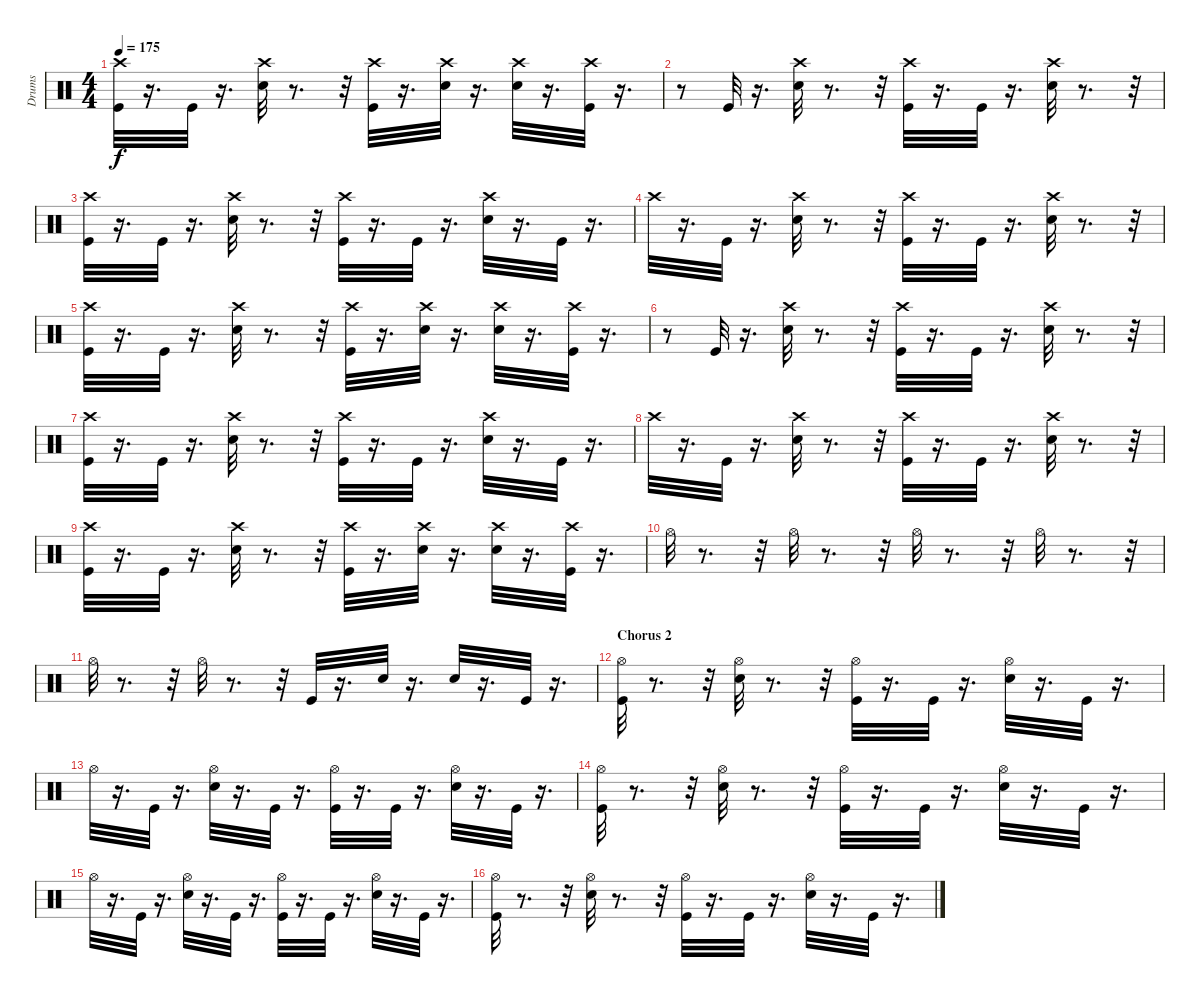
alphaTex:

\track ("Drums" "Drums") {instrument percussion}
\staff {score}
\articulation defaults
\ts (4 4)
\tempo 175
\clef neutral
\ks c
("Crash high (hit)" "Kick (hit)").32{dy f} r.16{d} "Kick (hit)".32 r.16{d} ("Crash high (hit)" "Electric Snare (hit)").32 r.8{d} r.32 ("Crash high (hit)" "Kick (hit)").32 r.16{d} ("Electric Snare (hit)" "Crash high (hit)").32 r.16{d} ("Electric Snare (hit)" "Crash high (hit)").32 r.16{d} ("Crash high (hit)" "Kick (hit)").32 r.16{d} |
r.8 "Kick (hit)".32 r.16{d} ("Crash high (hit)" "Electric Snare (hit)").32 r.8{d} r.32 ("Crash high (hit)" "Kick (hit)").32 r.16{d} "Kick (hit)".32 r.16{d} ("Electric Snare (hit)" "Crash high (hit)").32 r.8{d} r.32 |
("Crash high (hit)" "Kick (hit)").32 r.16{d} "Kick (hit)".32 r.16{d} ("Crash high (hit)" "Electric Snare (hit)").32 r.8{d} r.32 ("Crash high (hit)" "Kick (hit)").32 r.16{d} "Kick (hit)".32 r.16{d} ("Electric Snare (hit)" "Crash high (hit)").32 r.16{d} "Kick (hit)".32 r.16{d} |
"Crash high (hit)".32 r.16{d} "Kick (hit)".32 r.16{d} ("Crash high (hit)" "Electric Snare (hit)").32 r.8{d} r.32 ("Crash high (hit)" "Kick (hit)").32 r.16{d} "Kick (hit)".32 r.16{d} ("Electric Snare (hit)" "Crash high (hit)").32 r.8{d} r.32 |
("Crash high (hit)" "Kick (hit)").32 r.16{d} "Kick (hit)".32 r.16{d} ("Crash high (hit)" "Electric Snare (hit)").32 r.8{d} r.32 ("Crash high (hit)" "Kick (hit)").32 r.16{d} ("Electric Snare (hit)" "Crash high (hit)").32 r.16{d} ("Electric Snare (hit)" "Crash high (hit)").32 r.16{d} ("Crash high (hit)" "Kick (hit)").32 r.16{d} |
r.8 "Kick (hit)".32 r.16{d} ("Crash high (hit)" "Electric Snare (hit)").32 r.8{d} r.32 ("Crash high (hit)" "Kick (hit)").32 r.16{d} "Kick (hit)".32 r.16{d} ("Electric Snare (hit)" "Crash high (hit)").32 r.8{d} r.32 |
("Crash high (hit)" "Kick (hit)").32 r.16{d} "Kick (hit)".32 r.16{d} ("Crash high (hit)" "Electric Snare (hit)").32 r.8{d} r.32 ("Crash high (hit)" "Kick (hit)").32 r.16{d} "Kick (hit)".32 r.16{d} ("Electric Snare (hit)" "Crash high (hit)").32 r.16{d} "Kick (hit)".32 r.16{d} |
"Crash high (hit)".32 r.16{d} "Kick (hit)".32 r.16{d} ("Crash high (hit)" "Electric Snare (hit)").32 r.8{d} r.32 ("Crash high (hit)" "Kick (hit)").32 r.16{d} "Kick (hit)".32 r.16{d} ("Electric Snare (hit)" "Crash high (hit)").32 r.8{d} r.32 |
("Crash high (hit)" "Kick (hit)").32 r.16{d} "Kick (hit)".32 r.16{d} ("Crash high (hit)" "Electric Snare (hit)").32 r.8{d} r.32 ("Crash high (hit)" "Kick (hit)").32 r.16{d} ("Electric Snare (hit)" "Crash high (hit)").32 r.16{d} ("Electric Snare (hit)" "Crash high (hit)").32 r.16{d} ("Crash high (hit)" "Kick (hit)").32 r.16{d} |
"Hi-Hat (open)".32 r.8{d} r.32 "Hi-Hat (open)".32 r.8{d} r.32 "Hi-Hat (open)".32 r.8{d} r.32 "Hi-Hat (open)".32 r.8{d} r.32 |
"Hi-Hat (open)".32 r.8{d} r.32 "Hi-Hat (open)".32 r.8{d} r.32 "Kick (hit)".32 r.16{d} "Electric Snare (hit)".32 r.16{d} "Electric Snare (hit)".32 r.16{d} "Kick (hit)".32 r.16{d} |
\section ("" "Chorus 2")
("Hi-Hat (open)" "Kick (hit)").32 r.8{d} r.32 ("Hi-Hat (open)" "Electric Snare (hit)").32 r.8{d} r.32 ("Hi-Hat (open)" "Kick (hit)").32 r.16{d} "Kick (hit)".32 r.16{d} ("Hi-Hat (open)" "Electric Snare (hit)").32 r.16{d} "Kick (hit)".32 r.16{d} |
"Hi-Hat (open)".32 r.16{d} "Kick (hit)".32 r.16{d} ("Hi-Hat (open)" "Electric Snare (hit)").32 r.16{d} "Kick (hit)".32 r.16{d} ("Hi-Hat (open)" "Kick (hit)").32 r.16{d} "Kick (hit)".32 r.16{d} ("Hi-Hat (open)" "Electric Snare (hit)").32 r.16{d} "Kick (hit)".32 r.16{d} |
("Hi-Hat (open)" "Kick (hit)").32 r.8{d} r.32 ("Hi-Hat (open)" "Electric Snare (hit)").32 r.8{d} r.32 ("Hi-Hat (open)" "Kick (hit)").32 r.16{d} "Kick (hit)".32 r.16{d} ("Hi-Hat (open)" "Electric Snare (hit)").32 r.16{d} "Kick (hit)".32 r.16{d} |
"Hi-Hat (open)".32 r.16{d} "Kick (hit)".32 r.16{d} ("Hi-Hat (open)" "Electric Snare (hit)").32 r.16{d} "Kick (hit)".32 r.16{d} ("Hi-Hat (open)" "Kick (hit)").32 r.16{d} "Kick (hit)".32 r.16{d} ("Hi-Hat (open)" "Electric Snare (hit)").32 r.16{d} "Kick (hit)".32 r.16{d} |
("Hi-Hat (open)" "Kick (hit)").32 r.8{d} r.32 ("Hi-Hat (open)" "Electric Snare (hit)").32 r.8{d} r.32 ("Hi-Hat (open)" "Kick (hit)").32 r.16{d} "Kick (hit)".32 r.16{d} ("Hi-Hat (open)" "Electric Snare (hit)").32 r.16{d} "Kick (hit)".32 r.16{d}
